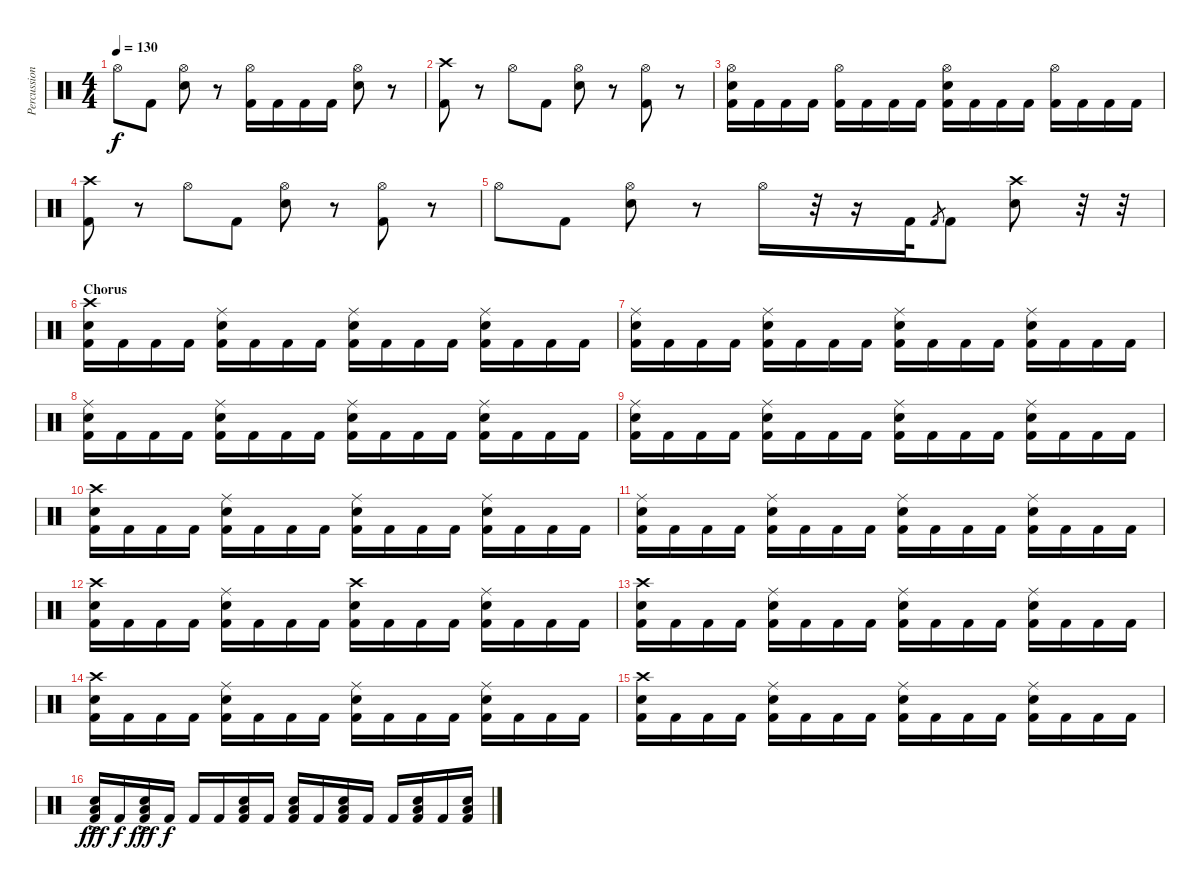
\track ("Percussion" "Percussion") {instrument percussion}
\staff {score}
\articulation defaults
\ts (4 4)
\tempo 130
\clef neutral
\ks c "Hi-Hat (open)".8{dy f} "Kick (hit) 2".8
("Hi-Hat (open)" "Snare (hit) 2").8 r.8 ("Hi-Hat (open)" "Kick (hit) 2").16 "Kick (hit) 2".16 "Kick (hit) 2".16 "Kick (hit) 2".16 ("Hi-Hat (open)" "Snare (hit) 2").8 r.8 |
("Crash high (hit)" "Kick (hit) 2").8 r.8 "Hi-Hat (open)".8 "Kick (hit) 2".8 ("Hi-Hat (open)" "Snare (hit) 2").8 r.8 ("Hi-Hat (open)" "Kick (hit) 2").8 r.8 |
("Hi-Hat (open)" "Snare (hit) 2" "Kick (hit) 2").16 "Kick (hit) 2".16 "Kick (hit) 2".16 "Kick (hit) 2".16 ("Hi-Hat (open)" "Kick (hit) 2").16 "Kick (hit) 2".16 "Kick (hit) 2".16 "Kick (hit) 2".16 ("Hi-Hat (open)" "Snare (hit) 2" "Kick (hit) 2").16 "Kick (hit) 2".16 "Kick (hit) 2".16 "Kick (hit) 2".16 ("Hi-Hat (open)" "Kick (hit) 2").16 "Kick (hit) 2".16 "Kick (hit) 2".16 "Kick (hit) 2".16 |
("Crash high (hit)" "Kick (hit) 2").8 r.8 "Hi-Hat (open)".8 "Kick (hit) 2".8 ("Hi-Hat (open)" "Snare (hit) 2").8 r.8 ("Hi-Hat (open)" "Kick (hit) 2").8 r.8 |
"Hi-Hat (open)".8 "Kick (hit) 2".8 ("Hi-Hat (open)" "Snare (hit) 2").8 r.8 "Hi-Hat (open)".16 r.32 r.16 "Kick (hit) 2".32 "Kick (hit) 2".8{gr} "Kick (hit) 2".8 ("Crash high (hit)" "Snare (hit) 2").8 r.32 r.32 |
\section ("" "Chorus")
("Crash high (hit)" "Snare (hit) 2" "Kick (hit) 2").16 "Kick (hit) 2".16 "Kick (hit) 2".16 "Kick (hit) 2".16 ("Ride (middle)" "Snare (hit) 2" "Kick (hit) 2").16 "Kick (hit) 2".16 "Kick (hit) 2".16 "Kick (hit) 2".16 ("Ride (middle)" "Snare (hit) 2" "Kick (hit) 2").16 "Kick (hit) 2".16 "Kick (hit) 2".16 "Kick (hit) 2".16 ("Ride (middle)" "Snare (hit) 2" "Kick (hit) 2").16 "Kick (hit) 2".16 "Kick (hit) 2".16 "Kick (hit) 2".16 |
("Ride (middle)" "Snare (hit) 2" "Kick (hit) 2").16 "Kick (hit) 2".16 "Kick (hit) 2".16 "Kick (hit) 2".16 ("Ride (middle)" "Snare (hit) 2" "Kick (hit) 2").16 "Kick (hit) 2".16 "Kick (hit) 2".16 "Kick (hit) 2".16 ("Ride (middle)" "Snare (hit) 2" "Kick (hit) 2").16 "Kick (hit) 2".16 "Kick (hit) 2".16 "Kick (hit) 2".16 ("Ride (middle)" "Snare (hit) 2" "Kick (hit) 2").16 "Kick (hit) 2".16 "Kick (hit) 2".16 "Kick (hit) 2".16 |
("Ride (middle)" "Snare (hit) 2" "Kick (hit) 2").16 "Kick (hit) 2".16 "Kick (hit) 2".16 "Kick (hit) 2".16 ("Ride (middle)" "Snare (hit) 2" "Kick (hit) 2").16 "Kick (hit) 2".16 "Kick (hit) 2".16 "Kick (hit) 2".16 ("Ride (middle)" "Snare (hit) 2" "Kick (hit) 2").16 "Kick (hit) 2".16 "Kick (hit) 2".16 "Kick (hit) 2".16 ("Ride (middle)" "Snare (hit) 2" "Kick (hit) 2").16 "Kick (hit) 2".16 "Kick (hit) 2".16 "Kick (hit) 2".16 |
("Ride (middle)" "Snare (hit) 2" "Kick (hit) 2").16 "Kick (hit) 2".16 "Kick (hit) 2".16 "Kick (hit) 2".16 ("Ride (middle)" "Snare (hit) 2" "Kick (hit) 2").16 "Kick (hit) 2".16 "Kick (hit) 2".16 "Kick (hit) 2".16 ("Ride (middle)" "Snare (hit) 2" "Kick (hit) 2").16 "Kick (hit) 2".16 "Kick (hit) 2".16 "Kick (hit) 2".16 ("Ride (middle)" "Snare (hit) 2" "Kick (hit) 2").16 "Kick (hit) 2".16 "Kick (hit) 2".16 "Kick (hit) 2".16 |
("Crash high (hit)" "Snare (hit) 2" "Kick (hit) 2").16 "Kick (hit) 2".16 "Kick (hit) 2".16 "Kick (hit) 2".16 ("Ride (middle)" "Snare (hit) 2" "Kick (hit) 2").16 "Kick (hit) 2".16 "Kick (hit) 2".16 "Kick (hit) 2".16 ("Ride (middle)" "Snare (hit) 2" "Kick (hit) 2").16 "Kick (hit) 2".16 "Kick (hit) 2".16 "Kick (hit) 2".16 ("Ride (middle)" "Snare (hit) 2" "Kick (hit) 2").16 "Kick (hit) 2".16 "Kick (hit) 2".16 "Kick (hit) 2".16 |
("Ride (middle)" "Snare (hit) 2" "Kick (hit) 2").16 "Kick (hit) 2".16 "Kick (hit) 2".16 "Kick (hit) 2".16 ("Ride (middle)" "Snare (hit) 2" "Kick (hit) 2").16 "Kick (hit) 2".16 "Kick (hit) 2".16 "Kick (hit) 2".16 ("Ride (middle)" "Snare (hit) 2" "Kick (hit) 2").16 "Kick (hit) 2".16 "Kick (hit) 2".16 "Kick (hit) 2".16 ("Ride (middle)" "Snare (hit) 2" "Kick (hit) 2").16 "Kick (hit) 2".16 "Kick (hit) 2".16 "Kick (hit) 2".16 |
("Crash high (hit)" "Snare (hit) 2" "Kick (hit) 2").16 "Kick (hit) 2".16 "Kick (hit) 2".16 "Kick (hit) 2".16 ("Ride (middle)" "Snare (hit) 2" "Kick (hit) 2").16 "Kick (hit) 2".16 "Kick (hit) 2".16 "Kick (hit) 2".16 ("Crash high (hit)" "Snare (hit) 2" "Kick (hit) 2").16 "Kick (hit) 2".16 "Kick (hit) 2".16 "Kick (hit) 2".16 ("Ride (middle)" "Snare (hit) 2" "Kick (hit) 2").16 "Kick (hit) 2".16 "Kick (hit) 2".16 "Kick (hit) 2".16 |
("Crash high (hit)" "Snare (hit) 2" "Kick (hit) 2").16 "Kick (hit) 2".16 "Kick (hit) 2".16 "Kick (hit) 2".16 ("Ride (middle)" "Snare (hit) 2" "Kick (hit) 2").16 "Kick (hit) 2".16 "Kick (hit) 2".16 "Kick (hit) 2".16 ("Ride (middle)" "Snare (hit) 2" "Kick (hit) 2").16 "Kick (hit) 2".16 "Kick (hit) 2".16 "Kick (hit) 2".16 ("Ride (middle)" "Snare (hit) 2" "Kick (hit) 2").16 "Kick (hit) 2".16 "Kick (hit) 2".16 "Kick (hit) 2".16 |
("Crash high (hit)" "Snare (hit) 2" "Kick (hit) 2").16 "Kick (hit) 2".16 "Kick (hit) 2".16 "Kick (hit) 2".16 ("Ride (middle)" "Snare (hit) 2" "Kick (hit) 2").16 "Kick (hit) 2".16 "Kick (hit) 2".16 "Kick (hit) 2".16 ("Ride (middle)" "Snare (hit) 2" "Kick (hit) 2").16 "Kick (hit) 2".16 "Kick (hit) 2".16 "Kick (hit) 2".16 ("Ride (middle)" "Snare (hit) 2" "Kick (hit) 2").16 "Kick (hit) 2".16 "Kick (hit) 2".16 "Kick (hit) 2".16 |
("Crash high (hit)" "Snare (hit) 2" "Kick (hit) 2").16 "Kick (hit) 2".16 "Kick (hit) 2".16 "Kick (hit) 2".16 ("Ride (middle)" "Snare (hit) 2" "Kick (hit) 2").16 "Kick (hit) 2".16 "Kick (hit) 2".16 "Kick (hit) 2".16 ("Ride (middle)" "Snare (hit) 2" "Kick (hit) 2").16 "Kick (hit) 2".16 "Kick (hit) 2".16 "Kick (hit) 2".16 ("Ride (middle)" "Snare (hit) 2" "Kick (hit) 2").16 "Kick (hit) 2".16 "Kick (hit) 2".16 "Kick (hit) 2".16 |
("Low Floor Tom (hit)" "Snare (hit) 2"{ac} "Kick (hit) 2").16{dy fff} "Kick (hit) 2".16{dy f} ("Low Floor Tom (hit)" "Snare (hit) 2"{ac} "Kick (hit) 2").16{dy fff} "Kick (hit) 2".16{dy f} "Kick (hit) 2".16 "Kick (hit) 2".16 ("Low Floor Tom (hit)" "Snare (hit) 2" "Kick (hit) 2").16 "Kick (hit) 2".16 ("Low Floor Tom (hit)" "Snare (hit) 2" "Kick (hit) 2").16 "Kick (hit) 2".16 ("Low Floor Tom (hit)" "Snare (hit) 2" "Kick (hit) 2").16 "Kick (hit) 2".16 "Kick (hit) 2".16 ("Low Floor Tom (hit)" "Snare (hit) 2" "Kick (hit) 2").16 "Kick (hit) 2".16 ("Low Floor Tom (hit)" "Snare (hit) 2" "Kick (hit) 2").16
